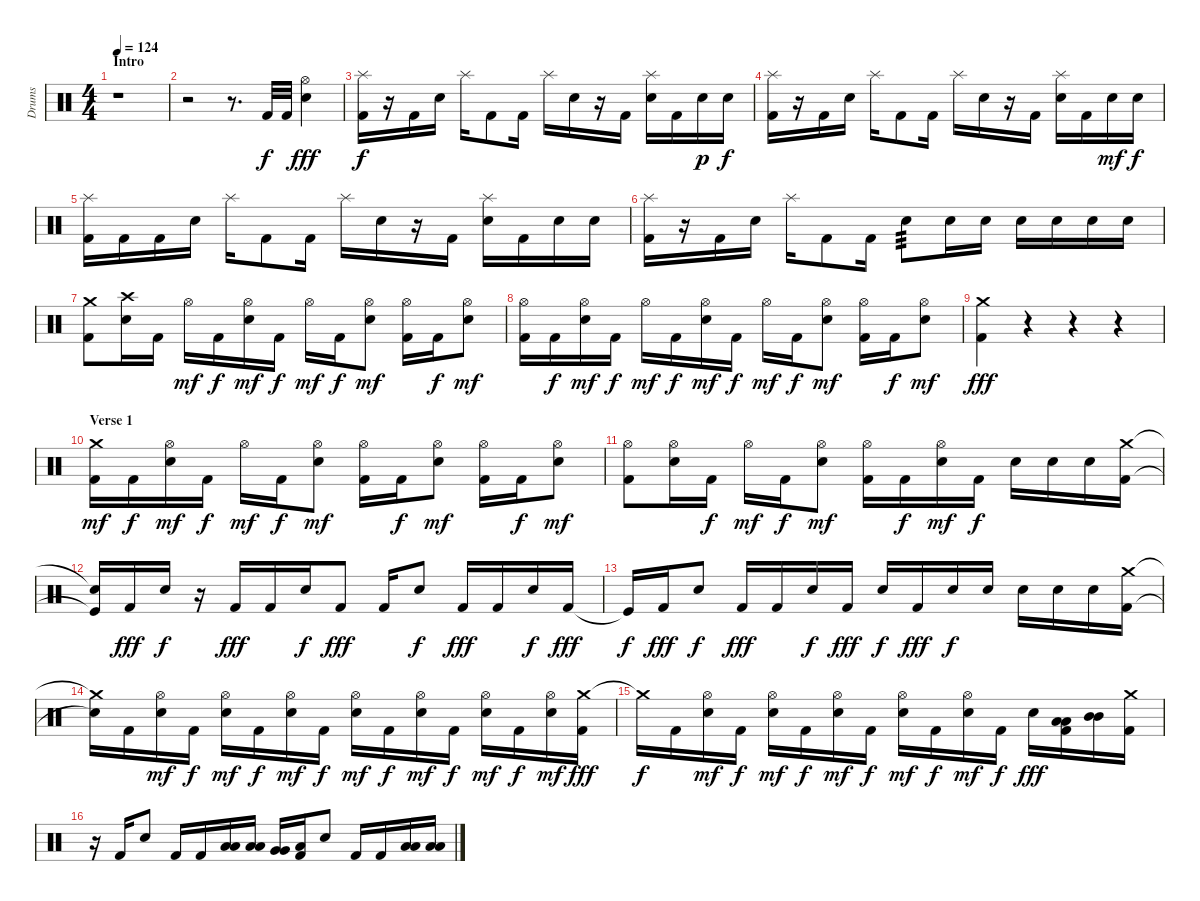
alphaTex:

\track ("Drums" "Drums") {instrument percussion}
\staff {score}
\articulation defaults
\ts (4 4)
\section ("" "Intro")
\tempo 124
\clef neutral
\ks c
r.1{dy f} |
r.2 r.8{d} "Kick (hit) 2".32 "Kick (hit) 2".32 ("Hi-Hat (open)" "Snare (hit) 2").4{dy fff} |
("Splash (hit)" "Kick (hit) 2").16{dy f} r.16 "Kick (hit) 2".16 "Snare (hit) 2".16 "Splash (hit)".16 "Kick (hit) 2".8 "Kick (hit) 2".16 "Splash (hit)".16 "Snare (hit) 2".16 r.16 "Kick (hit) 2".16 ("Splash (hit)" "Snare (hit) 2").16 "Kick (hit) 2".16 "Snare (hit) 2".16{dy p} "Snare (hit) 2".16{dy f} |
("Splash (hit)" "Kick (hit) 2").16 r.16 "Kick (hit) 2".16 "Snare (hit) 2".16 "Splash (hit)".16 "Kick (hit) 2".8 "Kick (hit) 2".16 "Splash (hit)".16 "Snare (hit) 2".16 r.16 "Kick (hit) 2".16 ("Splash (hit)" "Snare (hit) 2").16 "Kick (hit) 2".16 "Snare (hit) 2".16{dy mf} "Snare (hit) 2".16{dy f} |
("Splash (hit)" "Kick (hit) 2").16 "Kick (hit) 2".16 "Kick (hit) 2".16 "Snare (hit) 2".16 "Splash (hit)".16 "Kick (hit) 2".8 "Kick (hit) 2".16 "Splash (hit)".16 "Snare (hit) 2".16 r.16 "Kick (hit) 2".16 ("Splash (hit)" "Snare (hit) 2").16 "Kick (hit) 2".16 "Snare (hit) 2".16 "Snare (hit) 2".16 |
("Splash (hit)" "Kick (hit) 2").16 r.16 "Kick (hit) 2".16 "Snare (hit) 2".16 "Splash (hit)".16 "Kick (hit) 2".8 "Kick (hit) 2".16 "Snare (hit) 2".8{tp 3} "Snare (hit) 2".16 "Snare (hit) 2".16 "Snare (hit) 2".16 "Snare (hit) 2".16 "Snare (hit) 2".16 "Snare (hit) 2".16 |
("Crash medium (hit)" "Kick (hit) 2").8 ("Crash high (hit)" "Snare (hit) 2").16 "Kick (hit) 2".16 "Hi-Hat (open)".16{dy mf} "Kick (hit) 2".16{dy f} ("Hi-Hat (open)" "Snare (hit) 2").16{dy mf} "Kick (hit) 2".16{dy f} "Hi-Hat (open)".16{dy mf} "Kick (hit) 2".16{dy f} ("Hi-Hat (open)" "Snare (hit) 2").8{dy mf} ("Hi-Hat (open)" "Kick (hit) 2").16 "Kick (hit) 2".16{dy f} ("Hi-Hat (open)" "Snare (hit) 2").8{dy mf} |
("Hi-Hat (open)" "Kick (hit) 2").16 "Kick (hit) 2".16{dy f} ("Hi-Hat (open)" "Snare (hit) 2").16{dy mf} "Kick (hit) 2".16{dy f} "Hi-Hat (open)".16{dy mf} "Kick (hit) 2".16{dy f} ("Hi-Hat (open)" "Snare (hit) 2").16{dy mf} "Kick (hit) 2".16{dy f} "Hi-Hat (open)".16{dy mf} "Kick (hit) 2".16{dy f} ("Hi-Hat (open)" "Snare (hit) 2").8{dy mf} ("Hi-Hat (open)" "Kick (hit) 2").16 "Kick (hit) 2".16{dy f} ("Hi-Hat (open)" "Snare (hit) 2").8{dy mf} |
("Crash medium (hit)" "Kick (hit) 2").4{dy fff volume 0} r.4 r.4 r.4 |
\section ("" "Verse 1")
("Crash medium (hit)" "Kick (hit) 2").16{dy mf volume 16} "Kick (hit) 2".16{dy f} ("Hi-Hat (open)" "Snare (hit) 2").16{dy mf} "Kick (hit) 2".16{dy f} "Hi-Hat (open)".16{dy mf} "Kick (hit) 2".16{dy f} ("Hi-Hat (open)" "Snare (hit) 2").8{dy mf} ("Hi-Hat (open)" "Kick (hit) 2").16 "Kick (hit) 2".16{dy f} ("Hi-Hat (open)" "Snare (hit) 2").8{dy mf} ("Hi-Hat (open)" "Kick (hit) 2").16 "Kick (hit) 2".16{dy f} ("Hi-Hat (open)" "Snare (hit) 2").8{dy mf} |
("Hi-Hat (open)" "Kick (hit) 2").8{volume 16} ("Hi-Hat (open)" "Snare (hit) 2").16 "Kick (hit) 2".16{dy f} "Hi-Hat (open)".16{dy mf} "Kick (hit) 2".16{dy f} ("Hi-Hat (open)" "Snare (hit) 2").8{dy mf} ("Hi-Hat (open)" "Kick (hit) 2").16 "Kick (hit) 2".16{dy f} ("Hi-Hat (open)" "Snare (hit) 2").16{dy mf} "Kick (hit) 2".16{dy f} "Snare (hit) 2".16 "Snare (hit) 2".16 "Snare (hit) 2".16 ("Crash medium (hit)" "Kick (hit) 2").16 |
("Snare (hit)"{t} "Kick (hit)"{t}).16{volume 16} "Kick (hit) 2".16{dy fff} "Snare (hit) 2".16{dy f} r.16 "Kick (hit) 2".16{dy fff} "Kick (hit) 2".16 "Snare (hit) 2".16{dy f} "Kick (hit) 2".8{dy fff} "Kick (hit) 2".16 "Snare (hit) 2".8{dy f} "Kick (hit) 2".16{dy fff} "Kick (hit) 2".16 "Snare (hit) 2".16{dy f} "Kick (hit) 2".16{dy fff} |
"Kick (hit)"{t}.16{dy f} "Kick (hit) 2".16{dy fff} "Snare (hit) 2".8{dy f} "Kick (hit) 2".16{dy fff} "Kick (hit) 2".16 "Snare (hit) 2".16{dy f} "Kick (hit) 2".16{dy fff} "Snare (hit) 2".16{dy f} "Kick (hit) 2".16{dy fff} "Snare (hit) 2".16{dy f} "Snare (hit) 2".16 "Snare (hit) 2".16 "Snare (hit) 2".16 "Snare (hit) 2".16 ("Crash medium (hit)" "Kick (hit) 2").16 |
("Crash medium (hit)"{t} "Snare (hit)"{t}).16 "Kick (hit) 2".16 ("Hi-Hat (open)" "Snare (hit) 2").16{dy mf} "Kick (hit) 2".16{dy f} ("Hi-Hat (open)" "Snare (hit) 2").16{dy mf} "Kick (hit) 2".16{dy f} ("Hi-Hat (open)" "Snare (hit) 2").16{dy mf} "Kick (hit) 2".16{dy f} ("Hi-Hat (open)" "Snare (hit) 2").16{dy mf} "Kick (hit) 2".16{dy f} ("Hi-Hat (open)" "Snare (hit) 2").16{dy mf} "Kick (hit) 2".16{dy f} ("Hi-Hat (open)" "Snare (hit) 2").16{dy mf} "Kick (hit) 2".16{dy f} ("Hi-Hat (open)" "Snare (hit) 2").16{dy mf} ("Crash medium (hit)" "Kick (hit) 2").16{dy fff} |
"Crash medium (hit)"{t}.16{dy f} "Kick (hit) 2".16 ("Hi-Hat (open)" "Snare (hit) 2").16{dy mf} "Kick (hit) 2".16{dy f} ("Hi-Hat (open)" "Snare (hit) 2").16{dy mf} "Kick (hit) 2".16{dy f} ("Hi-Hat (open)" "Snare (hit) 2").16{dy mf} "Kick (hit) 2".16{dy f} ("Hi-Hat (open)" "Snare (hit) 2").16{dy mf} "Kick (hit) 2".16{dy f} ("Hi-Hat (open)" "Snare (hit) 2").16{dy mf} "Kick (hit) 2".16{dy f} "Snare (hit) 2".16{dy fff} ("Low Tom (hit)" "Low Tom (hit)" "Kick (hit) 2").16 ("Mid Tom (hit)" "Mid Tom (hit)").16 ("Crash medium (hit)" "Kick (hit) 2").16 |
r.16 "Kick (hit) 2".16 "Snare (hit) 2".8 "Kick (hit) 2".16 "Kick (hit) 2".16 ("Low Tom (hit)" "Low Tom (hit)").16 ("Low Tom (hit)" "Low Tom (hit)").16 ("Very Low Tom (hit)" "Very Low Tom (hit)").16 ("Low Floor Tom (hit)" "Kick (hit) 2").16 "Snare (hit) 2".8 "Kick (hit) 2".16 "Kick (hit) 2".16 ("Low Tom (hit)" "Low Tom (hit)").16 ("Low Tom (hit)" "Low Tom (hit)").16
